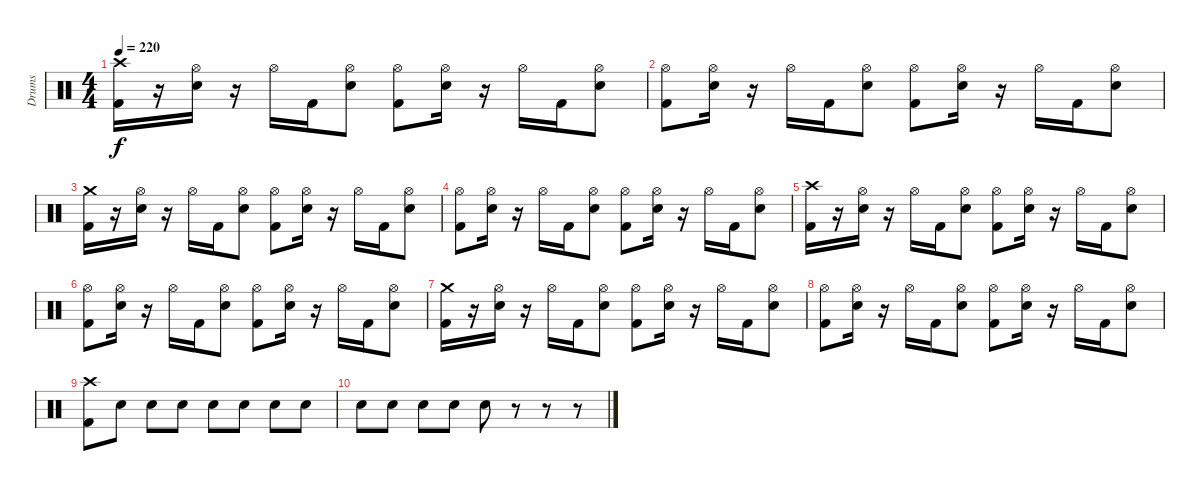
\track ("Drums" "Drums") {instrument percussion}
\staff {score}
\articulation defaults
\ts (4 4)
\tempo 220
\clef neutral
\ks c
("Crash high (hit)" "Kick (hit) 2").16{dy f} r.16 ("Electric Snare (hit)" "Hi-Hat (open)").16 r.16 "Hi-Hat (open)".16 "Kick (hit) 2".16 ("Electric Snare (hit)" "Hi-Hat (open)").8 ("Kick (hit) 2" "Hi-Hat (open)").8 ("Electric Snare (hit)" "Hi-Hat (open)").16 r.16 "Hi-Hat (open)".16 "Kick (hit) 2".16 ("Electric Snare (hit)" "Hi-Hat (open)").8 |
("Kick (hit) 2" "Hi-Hat (open)").8 ("Electric Snare (hit)" "Hi-Hat (open)").16 r.16 "Hi-Hat (open)".16 "Kick (hit) 2".16 ("Electric Snare (hit)" "Hi-Hat (open)").8 ("Kick (hit) 2" "Hi-Hat (open)").8 ("Electric Snare (hit)" "Hi-Hat (open)").16 r.16 "Hi-Hat (open)".16 "Kick (hit) 2".16 ("Electric Snare (hit)" "Hi-Hat (open)").8 |
("Kick (hit) 2" "Crash medium (hit)").16 r.16 ("Electric Snare (hit)" "Hi-Hat (open)").16 r.16 "Hi-Hat (open)".16 "Kick (hit) 2".16 ("Electric Snare (hit)" "Hi-Hat (open)").8 ("Kick (hit) 2" "Hi-Hat (open)").8 ("Electric Snare (hit)" "Hi-Hat (open)").16 r.16 "Hi-Hat (open)".16 "Kick (hit) 2".16 ("Electric Snare (hit)" "Hi-Hat (open)").8 |
("Kick (hit) 2" "Hi-Hat (open)").8 ("Electric Snare (hit)" "Hi-Hat (open)").16 r.16 "Hi-Hat (open)".16 "Kick (hit) 2".16 ("Electric Snare (hit)" "Hi-Hat (open)").8 ("Kick (hit) 2" "Hi-Hat (open)").8 ("Electric Snare (hit)" "Hi-Hat (open)").16 r.16 "Hi-Hat (open)".16 "Kick (hit) 2".16 ("Electric Snare (hit)" "Hi-Hat (open)").8 |
("Crash high (hit)" "Kick (hit) 2").16 r.16 ("Electric Snare (hit)" "Hi-Hat (open)").16 r.16 "Hi-Hat (open)".16 "Kick (hit) 2".16 ("Electric Snare (hit)" "Hi-Hat (open)").8 ("Kick (hit) 2" "Hi-Hat (open)").8 ("Electric Snare (hit)" "Hi-Hat (open)").16 r.16 "Hi-Hat (open)".16 "Kick (hit) 2".16 ("Electric Snare (hit)" "Hi-Hat (open)").8 |
("Kick (hit) 2" "Hi-Hat (open)").8 ("Electric Snare (hit)" "Hi-Hat (open)").16 r.16 "Hi-Hat (open)".16 "Kick (hit) 2".16 ("Electric Snare (hit)" "Hi-Hat (open)").8 ("Kick (hit) 2" "Hi-Hat (open)").8 ("Electric Snare (hit)" "Hi-Hat (open)").16 r.16 "Hi-Hat (open)".16 "Kick (hit) 2".16 ("Electric Snare (hit)" "Hi-Hat (open)").8 |
("Kick (hit) 2" "Crash medium (hit)").16 r.16 ("Electric Snare (hit)" "Hi-Hat (open)").16 r.16 "Hi-Hat (open)".16 "Kick (hit) 2".16 ("Electric Snare (hit)" "Hi-Hat (open)").8 ("Kick (hit) 2" "Hi-Hat (open)").8 ("Electric Snare (hit)" "Hi-Hat (open)").16 r.16 "Hi-Hat (open)".16 "Kick (hit) 2".16 ("Electric Snare (hit)" "Hi-Hat (open)").8 |
("Kick (hit) 2" "Hi-Hat (open)").8 ("Electric Snare (hit)" "Hi-Hat (open)").16 r.16 "Hi-Hat (open)".16 "Kick (hit) 2".16 ("Electric Snare (hit)" "Hi-Hat (open)").8 ("Kick (hit) 2" "Hi-Hat (open)").8 ("Electric Snare (hit)" "Hi-Hat (open)").16 r.16 "Hi-Hat (open)".16 "Kick (hit) 2".16 ("Electric Snare (hit)" "Hi-Hat (open)").8 |
("Crash high (hit)" "Kick (hit) 2").8 "Electric Snare (hit)".8 "Electric Snare (hit)".8 "Electric Snare (hit)".8 "Electric Snare (hit)".8 "Electric Snare (hit)".8 "Electric Snare (hit)".8 "Electric Snare (hit)".8 |
"Electric Snare (hit)".8 "Electric Snare (hit)".8 "Electric Snare (hit)".8 "Electric Snare (hit)".8 "Electric Snare (hit)".8 r.8 r.8 r.8
